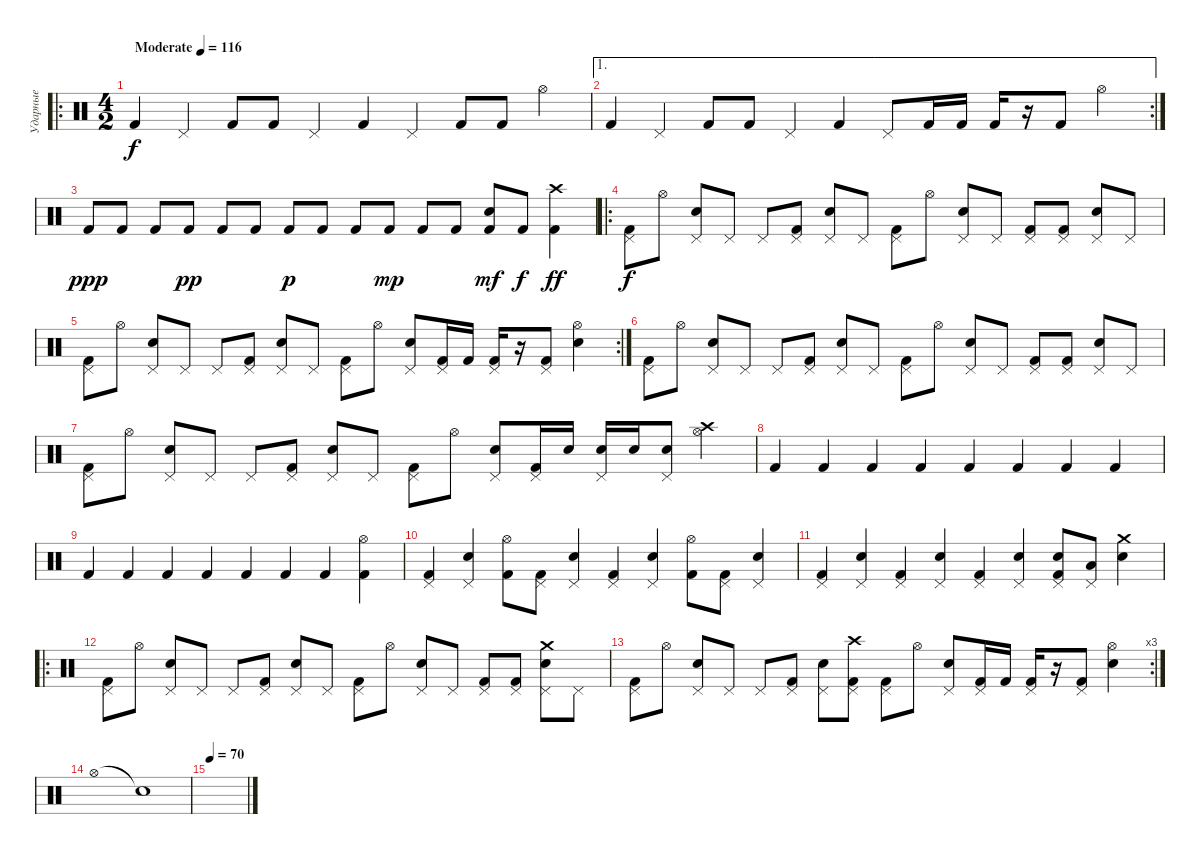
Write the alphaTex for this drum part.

\track ("Ударные" "Ударные") {instrument percussion}
\staff {score}
\articulation defaults
\ro
\ts (4 2)
\tempo (116 "Moderate")
\clef neutral
\ks c "Kick (hit) 2".4{dy f} "Pedal Hi-Hat (hit)".4 "Kick (hit) 2".8 "Kick (hit) 2".8 "Pedal Hi-Hat (hit)".4 "Kick (hit) 2".4 "Pedal Hi-Hat (hit)".4 "Kick (hit) 2".8 "Kick (hit) 2".8 "Hi-Hat (open)".4
|
\ae 1
\rc 2 "Kick (hit) 2".4 "Pedal Hi-Hat (hit)".4 "Kick (hit) 2".8 "Kick (hit) 2".8 "Pedal Hi-Hat (hit)".4 "Kick (hit) 2".4 "Pedal Hi-Hat (hit)".8 "Kick (hit) 2".16 "Kick (hit) 2".16 "Kick (hit) 2".16
r.16 "Kick (hit) 2".8 "Hi-Hat (open)".4 |
"Kick (hit) 2".8{dy ppp} "Kick (hit) 2".8 "Kick (hit) 2".8 "Kick (hit) 2".8{dy pp} "Kick (hit) 2".8 "Kick (hit) 2".8 "Kick (hit) 2".8{dy p} "Kick (hit) 2".8 "Kick (hit) 2".8 "Kick (hit) 2".8{dy mp} "Kick (hit) 2".8 "Kick (hit) 2".8 ("Snare (hit) 2" "Kick (hit) 2").8{dy mf} "Kick (hit) 2".8{dy f} ("Crash high (hit)" "Kick (hit) 2").4{dy ff} |
\ro
("Kick (hit) 2" "Pedal Hi-Hat (hit)").8{dy f} "Hi-Hat (open)".8 ("Snare (hit) 2" "Pedal Hi-Hat (hit)").8 "Pedal Hi-Hat (hit)".8 "Pedal Hi-Hat (hit)".8 ("Kick (hit) 2" "Pedal Hi-Hat (hit)").8 ("Snare (hit) 2" "Pedal Hi-Hat (hit)").8 "Pedal Hi-Hat (hit)".8 ("Kick (hit) 2" "Pedal Hi-Hat (hit)").8 "Hi-Hat (open)".8 ("Snare (hit) 2" "Pedal Hi-Hat (hit)").8 "Pedal Hi-Hat (hit)".8 ("Kick (hit) 2" "Pedal Hi-Hat (hit)").8 ("Kick (hit) 2" "Pedal Hi-Hat (hit)").8 ("Snare (hit) 2" "Pedal Hi-Hat (hit)").8 "Pedal Hi-Hat (hit)".8 |
\rc 2
("Kick (hit) 2" "Pedal Hi-Hat (hit)").8 "Hi-Hat (open)".8 ("Snare (hit) 2" "Pedal Hi-Hat (hit)").8 "Pedal Hi-Hat (hit)".8 "Pedal Hi-Hat (hit)".8 ("Kick (hit) 2" "Pedal Hi-Hat (hit)").8 ("Snare (hit) 2" "Pedal Hi-Hat (hit)").8 "Pedal Hi-Hat (hit)".8 ("Kick (hit) 2" "Pedal Hi-Hat (hit)").8 "Hi-Hat (open)".8 ("Snare (hit) 2" "Pedal Hi-Hat (hit)").8 ("Kick (hit) 2" "Pedal Hi-Hat (hit)").16 "Kick (hit) 2".16 ("Kick (hit) 2" "Pedal Hi-Hat (hit)").16 r.16 ("Kick (hit) 2" "Pedal Hi-Hat (hit)").8 ("Snare (hit) 2" "Hi-Hat (open)").4 |
("Kick (hit) 2" "Pedal Hi-Hat (hit)").8 "Hi-Hat (open)".8 ("Snare (hit) 2" "Pedal Hi-Hat (hit)").8 "Pedal Hi-Hat (hit)".8 "Pedal Hi-Hat (hit)".8 ("Kick (hit) 2" "Pedal Hi-Hat (hit)").8 ("Snare (hit) 2" "Pedal Hi-Hat (hit)").8 "Pedal Hi-Hat (hit)".8 ("Kick (hit) 2" "Pedal Hi-Hat (hit)").8 "Hi-Hat (open)".8 ("Snare (hit) 2" "Pedal Hi-Hat (hit)").8 "Pedal Hi-Hat (hit)".8 ("Kick (hit) 2" "Pedal Hi-Hat (hit)").8 ("Kick (hit) 2" "Pedal Hi-Hat (hit)").8 ("Snare (hit) 2" "Pedal Hi-Hat (hit)").8 "Pedal Hi-Hat (hit)".8 |
("Kick (hit) 2" "Pedal Hi-Hat (hit)").8 "Hi-Hat (open)".8 ("Snare (hit) 2" "Pedal Hi-Hat (hit)").8 "Pedal Hi-Hat (hit)".8 "Pedal Hi-Hat (hit)".8 ("Kick (hit) 2" "Pedal Hi-Hat (hit)").8 ("Snare (hit) 2" "Pedal Hi-Hat (hit)").8 "Pedal Hi-Hat (hit)".8 ("Kick (hit) 2" "Pedal Hi-Hat (hit)").8 "Hi-Hat (open)".8 ("Snare (hit) 2" "Pedal Hi-Hat (hit)").8 ("Kick (hit) 2" "Pedal Hi-Hat (hit)").16 "Snare (hit) 2".16 ("Snare (hit) 2" "Pedal Hi-Hat (hit)").16 "Snare (hit) 2".16 ("Snare (hit) 2" "Pedal Hi-Hat (hit)").8 ("Crash high (hit)" "Hi-Hat (open)").4 |
"Kick (hit) 2".4 "Kick (hit) 2".4 "Kick (hit) 2".4 "Kick (hit) 2".4 "Kick (hit) 2".4 "Kick (hit) 2".4 "Kick (hit) 2".4 "Kick (hit) 2".4 |
"Kick (hit) 2".4 "Kick (hit) 2".4 "Kick (hit) 2".4 "Kick (hit) 2".4 "Kick (hit) 2".4 "Kick (hit) 2".4 "Kick (hit) 2".4 ("Hi-Hat (open)" "Kick (hit) 2").4 |
("Kick (hit) 2" "Pedal Hi-Hat (hit)").4 ("Snare (hit) 2" "Pedal Hi-Hat (hit)").4 ("Kick (hit) 2" "Hi-Hat (open)").8 ("Kick (hit) 2" "Pedal Hi-Hat (hit)").8 ("Snare (hit) 2" "Pedal Hi-Hat (hit)").4 ("Kick (hit) 2" "Pedal Hi-Hat (hit)").4 ("Snare (hit) 2" "Pedal Hi-Hat (hit)").4 ("Kick (hit) 2" "Hi-Hat (open)").8 ("Kick (hit) 2" "Pedal Hi-Hat (hit)").8 ("Snare (hit) 2" "Pedal Hi-Hat (hit)").4 |
("Kick (hit) 2" "Pedal Hi-Hat (hit)").4 ("Snare (hit) 2" "Pedal Hi-Hat (hit)").4 ("Kick (hit) 2" "Pedal Hi-Hat (hit)").4 ("Snare (hit) 2" "Pedal Hi-Hat (hit)").4 ("Kick (hit) 2" "Pedal Hi-Hat (hit)").4 ("Snare (hit) 2" "Pedal Hi-Hat (hit)").4 ("Kick (hit) 2" "Electric Snare (hit)" "Pedal Hi-Hat (hit)").8 ("Low Tom (hit)" "Pedal Hi-Hat (hit)").8 ("Snare (hit) 2" "Crash medium (hit)").4 |
\ro
("Kick (hit) 2" "Pedal Hi-Hat (hit)").8 "Hi-Hat (open)".8 ("Snare (hit) 2" "Pedal Hi-Hat (hit)").8 "Pedal Hi-Hat (hit)".8 "Pedal Hi-Hat (hit)".8 ("Kick (hit) 2" "Pedal Hi-Hat (hit)").8 ("Snare (hit) 2" "Pedal Hi-Hat (hit)").8 "Pedal Hi-Hat (hit)".8 ("Kick (hit) 2" "Pedal Hi-Hat (hit)").8 "Hi-Hat (open)".8 ("Snare (hit) 2" "Pedal Hi-Hat (hit)").8 "Pedal Hi-Hat (hit)".8 ("Kick (hit) 2" "Pedal Hi-Hat (hit)").8 ("Kick (hit) 2" "Pedal Hi-Hat (hit)").8 ("Crash medium (hit)" "Snare (hit) 2" "Pedal Hi-Hat (hit)").8 "Pedal Hi-Hat (hit)".8 |
\rc 3
("Kick (hit) 2" "Pedal Hi-Hat (hit)").8 "Hi-Hat (open)".8 ("Snare (hit) 2" "Pedal Hi-Hat (hit)").8 "Pedal Hi-Hat (hit)".8 "Pedal Hi-Hat (hit)".8 ("Kick (hit) 2" "Pedal Hi-Hat (hit)").8 ("Snare (hit) 2" "Pedal Hi-Hat (hit)").8 ("Crash high (hit)" "Kick (hit) 2" "Pedal Hi-Hat (hit)").8 ("Kick (hit) 2" "Pedal Hi-Hat (hit)").8 "Hi-Hat (open)".8 ("Snare (hit) 2" "Pedal Hi-Hat (hit)").8 ("Kick (hit) 2" "Pedal Hi-Hat (hit)").16 "Kick (hit) 2".16 ("Kick (hit) 2" "Pedal Hi-Hat (hit)").16 r.16 ("Kick (hit) 2" "Pedal Hi-Hat (hit)").8 ("Snare (hit) 2" "Hi-Hat (open)").4 |
"Hi-Hat (open)".1 "Snare (hit)"{t}.1 |
\tempo 70
